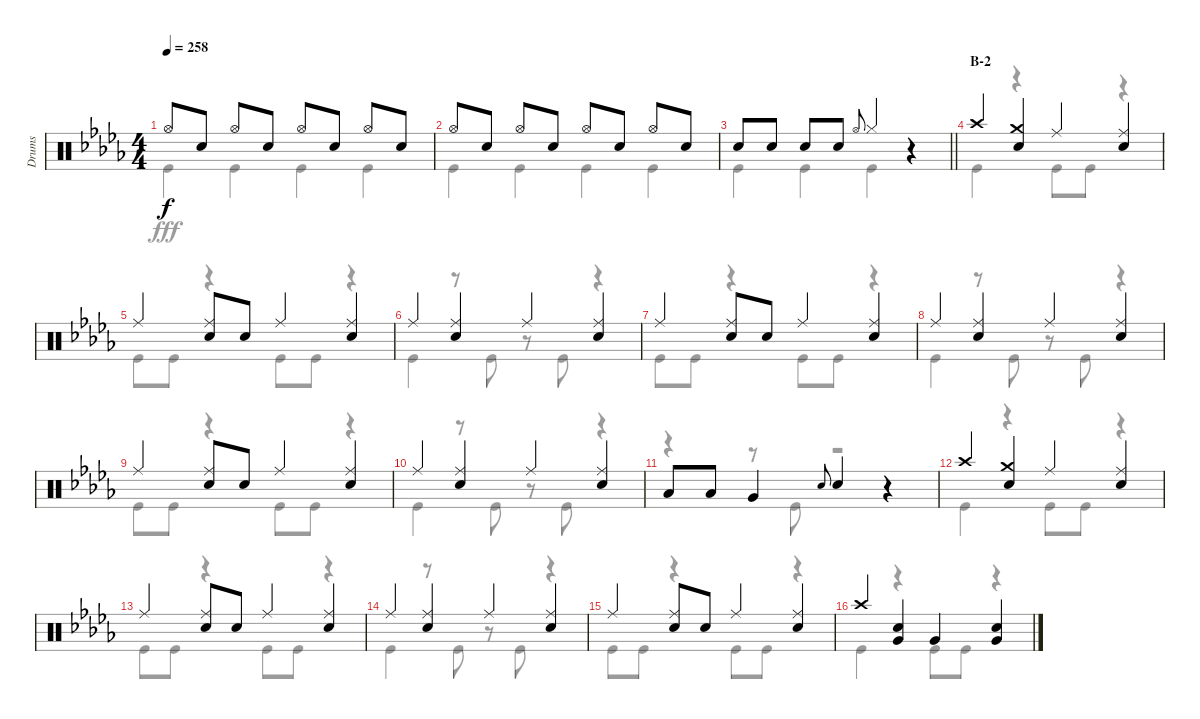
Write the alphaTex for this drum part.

\track ("Drums" "Drums") {instrument percussion}
\staff {score}
\articulation defaults
\voice
\ts (4 4)
\tempo 258
\clef neutral
\ks db "Hi-Hat (open)".8{dy f} "Snare (hit) 2".8 "Hi-Hat (open)".8 "Snare (hit) 2".8 "Hi-Hat (open)".8 "Snare (hit) 2".8 "Hi-Hat (open)".8 "Snare (hit) 2".8
|
"Hi-Hat (open)".8 "Snare (hit) 2".8 "Hi-Hat (open)".8 "Snare (hit) 2".8 "Hi-Hat (open)".8 "Snare (hit) 2".8 "Hi-Hat (open)".8 "Snare (hit) 2".8 |
\barLineRight lightlight "Snare (hit) 2".8 "Snare (hit) 2".8 "Snare (hit) 2".8 "Snare (hit) 2".8 "Hi-Hat (open)".8{gr onbeat} "Hi-Hat (closed)".4
r.4 |
\section ("" "B-2")
"Crash high (hit)".4 ("Crash medium (hit)" "Snare (hit) 2").4 "Ride (middle)".4 ("Ride (middle)" "Snare (hit) 2").4 |
"Ride (middle)".4 ("Ride (middle)" "Snare (hit) 2").8 "Snare (hit) 2".8 "Ride (middle)".4 ("Ride (middle)" "Snare (hit) 2").4 |
"Ride (middle)".4 ("Ride (middle)" "Snare (hit) 2").4 "Ride (middle)".4 ("Ride (middle)" "Snare (hit) 2").4 |
"Ride (middle)".4 ("Ride (middle)" "Snare (hit) 2").8 "Snare (hit) 2".8 "Ride (middle)".4 ("Ride (middle)" "Snare (hit) 2").4 |
"Ride (middle)".4 ("Ride (middle)" "Snare (hit) 2").4 "Ride (middle)".4 ("Ride (middle)" "Snare (hit) 2").4 |
"Ride (middle)".4 ("Ride (middle)" "Snare (hit) 2").8 "Snare (hit) 2".8 "Ride (middle)".4 ("Ride (middle)" "Snare (hit) 2").4 |
"Ride (middle)".4 ("Ride (middle)" "Snare (hit) 2").4 "Ride (middle)".4 ("Ride (middle)" "Snare (hit) 2").4 |
"Low Tom (hit)".8 "Low Tom (hit)".8 "Very Low Tom (hit)".4 "Snare (hit) 2".8{gr onbeat} "Snare (hit) 2".4 r.4 |
"Crash high (hit)".4 ("Crash medium (hit)" "Snare (hit) 2").4 "Ride (middle)".4 ("Ride (middle)" "Snare (hit) 2").4 |
"Ride (middle)".4 ("Ride (middle)" "Snare (hit) 2").8 "Snare (hit) 2".8 "Ride (middle)".4 ("Ride (middle)" "Snare (hit) 2").4 |
"Ride (middle)".4 ("Ride (middle)" "Snare (hit) 2").4 "Ride (middle)".4 ("Ride (middle)" "Snare (hit) 2").4 |
"Ride (middle)".4 ("Ride (middle)" "Snare (hit) 2").8 "Snare (hit) 2".8 "Ride (middle)".4 ("Ride (middle)" "Snare (hit) 2").4 |
"Crash high (hit)".4 ("Snare (hit) 2" "Very Low Tom (hit)").4 "Very Low Tom (hit)".4 ("Snare (hit) 2" "Very Low Tom (hit)").4
\voice
\clef neutral
\ottava regular
\simile none
\ks db "Kick (hit)".4{dy fff} "Kick (hit)".4 "Kick (hit)".4 "Kick (hit)".4
|
"Kick (hit)".4 "Kick (hit)".4 "Kick (hit)".4 "Kick (hit)".4 |
\barLineRight lightlight "Kick (hit)".4 "Kick (hit)".4 "Kick (hit)".4
r.4 |
"Kick (hit)".4 r.4 "Kick (hit)".8 "Kick (hit)".8 r.4 |
"Kick (hit)".8 "Kick (hit)".8 r.4 "Kick (hit)".8 "Kick (hit)".8 r.4 |
"Kick (hit)".4 r.8 "Kick (hit)".8 r.8 "Kick (hit)".8 r.4 |
"Kick (hit)".8 "Kick (hit)".8 r.4 "Kick (hit)".8 "Kick (hit)".8 r.4 |
"Kick (hit)".4 r.8 "Kick (hit)".8 r.8 "Kick (hit)".8 r.4 |
"Kick (hit)".8 "Kick (hit)".8 r.4 "Kick (hit)".8 "Kick (hit)".8 r.4 |
"Kick (hit)".4 r.8 "Kick (hit)".8 r.8 "Kick (hit)".8 r.4 |
r.4 r.8 "Kick (hit)".8 r.2 |
"Kick (hit)".4 r.4 "Kick (hit)".8 "Kick (hit)".8 r.4 |
"Kick (hit)".8 "Kick (hit)".8 r.4 "Kick (hit)".8 "Kick (hit)".8 r.4 |
"Kick (hit)".4 r.8 "Kick (hit)".8 r.8 "Kick (hit)".8 r.4 |
"Kick (hit)".8 "Kick (hit)".8 r.4 "Kick (hit)".8 "Kick (hit)".8 r.4 |
"Kick (hit)".4 r.4 "Kick (hit)".8 "Kick (hit)".8 r.4
